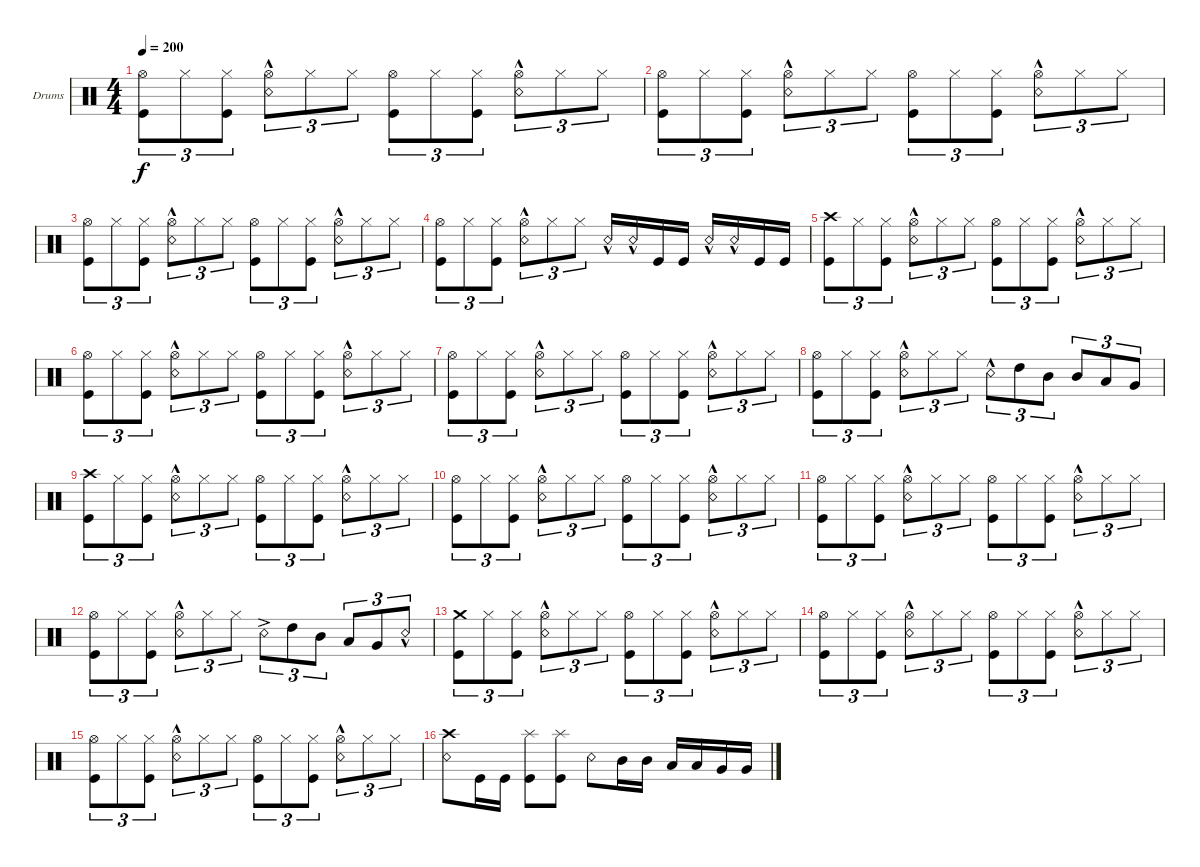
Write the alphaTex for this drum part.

\bracketExtendMode groupsimilarinstruments
\firstSystemTrackNameOrientation horizontal
\otherSystemsTrackNameOrientation horizontal
\track ("Drumkit" "Drums") {instrument percussion}
\staff {score}
\articulation defaults
\ts (4 4)
\tempo 200
\clef neutral
\ks c
("Kick (hit)" "Hi-Hat (open)").8{tu (3 2) dy f} "Hi-Hat (closed)".8{tu (3 2)} ("Kick (hit)" "Hi-Hat (closed)").8{tu (3 2)} ("Snare (rim shot)"{hac} "Hi-Hat (open)").8{tu (3 2)} "Hi-Hat (closed)".8{tu (3 2)} "Hi-Hat (closed)".8{tu (3 2)} ("Kick (hit)" "Hi-Hat (open)").8{tu (3 2)} "Hi-Hat (closed)".8{tu (3 2)} ("Kick (hit)" "Hi-Hat (closed)").8{tu (3 2)} ("Snare (rim shot)"{hac} "Hi-Hat (open)").8{tu (3 2)} "Hi-Hat (closed)".8{tu (3 2)} "Hi-Hat (closed)".8{tu (3 2)} |
("Kick (hit)" "Hi-Hat (open)").8{tu (3 2)} "Hi-Hat (closed)".8{tu (3 2)} ("Kick (hit)" "Hi-Hat (closed)").8{tu (3 2)} ("Snare (rim shot)"{hac} "Hi-Hat (open)").8{tu (3 2)} "Hi-Hat (closed)".8{tu (3 2)} "Hi-Hat (closed)".8{tu (3 2)} ("Kick (hit)" "Hi-Hat (open)").8{tu (3 2)} "Hi-Hat (closed)".8{tu (3 2)} ("Kick (hit)" "Hi-Hat (closed)").8{tu (3 2)} ("Snare (rim shot)"{hac} "Hi-Hat (open)").8{tu (3 2)} "Hi-Hat (closed)".8{tu (3 2)} "Hi-Hat (closed)".8{tu (3 2)} |
("Kick (hit)" "Hi-Hat (open)").8{tu (3 2)} "Hi-Hat (closed)".8{tu (3 2)} ("Kick (hit)" "Hi-Hat (closed)").8{tu (3 2)} ("Snare (rim shot)"{hac} "Hi-Hat (open)").8{tu (3 2)} "Hi-Hat (closed)".8{tu (3 2)} "Hi-Hat (closed)".8{tu (3 2)} ("Kick (hit)" "Hi-Hat (open)").8{tu (3 2)} "Hi-Hat (closed)".8{tu (3 2)} ("Kick (hit)" "Hi-Hat (closed)").8{tu (3 2)} ("Snare (rim shot)"{hac} "Hi-Hat (open)").8{tu (3 2)} "Hi-Hat (closed)".8{tu (3 2)} "Hi-Hat (closed)".8{tu (3 2)} |
("Kick (hit)" "Hi-Hat (open)").8{tu (3 2)} "Hi-Hat (closed)".8{tu (3 2)} ("Kick (hit)" "Hi-Hat (closed)").8{tu (3 2)} ("Snare (rim shot)"{hac} "Hi-Hat (open)").8{tu (3 2)} "Hi-Hat (closed)".8{tu (3 2)} "Hi-Hat (closed)".8{tu (3 2)} "Snare (rim shot)"{hac}.16 "Snare (rim shot)"{hac}.16 "Kick (hit)".16 "Kick (hit)".16 "Snare (rim shot)"{hac}.16 "Snare (rim shot)"{hac}.16 "Kick (hit)".16 "Kick (hit)".16 |
("Kick (hit)" "Crash high (hit)").8{tu (3 2)} "Hi-Hat (closed)".8{tu (3 2)} ("Kick (hit)" "Hi-Hat (closed)").8{tu (3 2)} ("Snare (rim shot)"{hac} "Hi-Hat (open)").8{tu (3 2)} "Hi-Hat (closed)".8{tu (3 2)} "Hi-Hat (closed)".8{tu (3 2)} ("Kick (hit)" "Hi-Hat (open)").8{tu (3 2)} "Hi-Hat (closed)".8{tu (3 2)} ("Kick (hit)" "Hi-Hat (closed)").8{tu (3 2)} ("Snare (rim shot)"{hac} "Hi-Hat (open)").8{tu (3 2)} "Hi-Hat (closed)".8{tu (3 2)} "Hi-Hat (closed)".8{tu (3 2)} |
("Kick (hit)" "Hi-Hat (open)").8{tu (3 2)} "Hi-Hat (closed)".8{tu (3 2)} ("Kick (hit)" "Hi-Hat (closed)").8{tu (3 2)} ("Snare (rim shot)"{hac} "Hi-Hat (open)").8{tu (3 2)} "Hi-Hat (closed)".8{tu (3 2)} "Hi-Hat (closed)".8{tu (3 2)} ("Kick (hit)" "Hi-Hat (open)").8{tu (3 2)} "Hi-Hat (closed)".8{tu (3 2)} ("Kick (hit)" "Hi-Hat (closed)").8{tu (3 2)} ("Snare (rim shot)"{hac} "Hi-Hat (open)").8{tu (3 2)} "Hi-Hat (closed)".8{tu (3 2)} "Hi-Hat (closed)".8{tu (3 2)} |
("Kick (hit)" "Hi-Hat (open)").8{tu (3 2)} "Hi-Hat (closed)".8{tu (3 2)} ("Kick (hit)" "Hi-Hat (closed)").8{tu (3 2)} ("Snare (rim shot)"{hac} "Hi-Hat (open)").8{tu (3 2)} "Hi-Hat (closed)".8{tu (3 2)} "Hi-Hat (closed)".8{tu (3 2)} ("Kick (hit)" "Hi-Hat (open)").8{tu (3 2)} "Hi-Hat (closed)".8{tu (3 2)} ("Kick (hit)" "Hi-Hat (closed)").8{tu (3 2)} ("Snare (rim shot)"{hac} "Hi-Hat (open)").8{tu (3 2)} "Hi-Hat (closed)".8{tu (3 2)} "Hi-Hat (closed)".8{tu (3 2)} |
("Kick (hit)" "Hi-Hat (open)").8{tu (3 2)} "Hi-Hat (closed)".8{tu (3 2)} ("Kick (hit)" "Hi-Hat (closed)").8{tu (3 2)} ("Snare (rim shot)"{hac} "Hi-Hat (open)").8{tu (3 2)} "Hi-Hat (closed)".8{tu (3 2)} "Hi-Hat (closed)".8{tu (3 2)} "Snare (rim shot)"{hac}.8{tu (3 2)} "High Tom (hit)".8{tu (3 2)} "Mid Tom (hit)".8{tu (3 2)} "Mid Tom (hit)".8{tu (3 2)} "Low Tom (hit)".8{tu (3 2)} "Very Low Tom (hit)".8{tu (3 2)} |
("Kick (hit)" "Crash high (hit)").8{tu (3 2)} "Hi-Hat (closed)".8{tu (3 2)} ("Kick (hit)" "Hi-Hat (closed)").8{tu (3 2)} ("Snare (rim shot)"{hac} "Hi-Hat (open)").8{tu (3 2)} "Hi-Hat (closed)".8{tu (3 2)} "Hi-Hat (closed)".8{tu (3 2)} ("Kick (hit)" "Hi-Hat (open)").8{tu (3 2)} "Hi-Hat (closed)".8{tu (3 2)} ("Kick (hit)" "Hi-Hat (closed)").8{tu (3 2)} ("Snare (rim shot)"{hac} "Hi-Hat (open)").8{tu (3 2)} "Hi-Hat (closed)".8{tu (3 2)} "Hi-Hat (closed)".8{tu (3 2)} |
("Kick (hit)" "Hi-Hat (open)").8{tu (3 2)} "Hi-Hat (closed)".8{tu (3 2)} ("Kick (hit)" "Hi-Hat (closed)").8{tu (3 2)} ("Snare (rim shot)"{hac} "Hi-Hat (open)").8{tu (3 2)} "Hi-Hat (closed)".8{tu (3 2)} "Hi-Hat (closed)".8{tu (3 2)} ("Kick (hit)" "Hi-Hat (open)").8{tu (3 2)} "Hi-Hat (closed)".8{tu (3 2)} ("Kick (hit)" "Hi-Hat (closed)").8{tu (3 2)} ("Snare (rim shot)"{hac} "Hi-Hat (open)").8{tu (3 2)} "Hi-Hat (closed)".8{tu (3 2)} "Hi-Hat (closed)".8{tu (3 2)} |
("Kick (hit)" "Hi-Hat (open)").8{tu (3 2)} "Hi-Hat (closed)".8{tu (3 2)} ("Kick (hit)" "Hi-Hat (closed)").8{tu (3 2)} ("Snare (rim shot)"{hac} "Hi-Hat (open)").8{tu (3 2)} "Hi-Hat (closed)".8{tu (3 2)} "Hi-Hat (closed)".8{tu (3 2)} ("Kick (hit)" "Hi-Hat (open)").8{tu (3 2)} "Hi-Hat (closed)".8{tu (3 2)} ("Kick (hit)" "Hi-Hat (closed)").8{tu (3 2)} ("Snare (rim shot)"{hac} "Hi-Hat (open)").8{tu (3 2)} "Hi-Hat (closed)".8{tu (3 2)} "Hi-Hat (closed)".8{tu (3 2)} |
("Kick (hit)" "Hi-Hat (open)").8{tu (3 2)} "Hi-Hat (closed)".8{tu (3 2)} ("Kick (hit)" "Hi-Hat (closed)").8{tu (3 2)} ("Snare (rim shot)"{hac} "Hi-Hat (open)").8{tu (3 2)} "Hi-Hat (closed)".8{tu (3 2)} "Hi-Hat (closed)".8{tu (3 2)} "Snare (rim shot)"{ac}.8{tu (3 2)} "High Tom (hit)".8{tu (3 2)} "Mid Tom (hit)".8{tu (3 2)} "Low Tom (hit)".8{tu (3 2)} "Very Low Tom (hit)".8{tu (3 2)} "Snare (rim shot)"{hac}.8{tu (3 2)} |
("Kick (hit)" "Crash medium (hit)").8{tu (3 2)} "Hi-Hat (closed)".8{tu (3 2)} ("Kick (hit)" "Hi-Hat (closed)").8{tu (3 2)} ("Snare (rim shot)"{hac} "Hi-Hat (open)").8{tu (3 2)} "Hi-Hat (closed)".8{tu (3 2)} "Hi-Hat (closed)".8{tu (3 2)} ("Kick (hit)" "Hi-Hat (open)").8{tu (3 2)} "Hi-Hat (closed)".8{tu (3 2)} ("Kick (hit)" "Hi-Hat (closed)").8{tu (3 2)} ("Snare (rim shot)"{hac} "Hi-Hat (open)").8{tu (3 2)} "Hi-Hat (closed)".8{tu (3 2)} "Hi-Hat (closed)".8{tu (3 2)} |
("Kick (hit)" "Hi-Hat (open)").8{tu (3 2)} "Hi-Hat (closed)".8{tu (3 2)} ("Kick (hit)" "Hi-Hat (closed)").8{tu (3 2)} ("Snare (rim shot)"{hac} "Hi-Hat (open)").8{tu (3 2)} "Hi-Hat (closed)".8{tu (3 2)} "Hi-Hat (closed)".8{tu (3 2)} ("Kick (hit)" "Hi-Hat (open)").8{tu (3 2)} "Hi-Hat (closed)".8{tu (3 2)} ("Kick (hit)" "Hi-Hat (closed)").8{tu (3 2)} ("Snare (rim shot)"{hac} "Hi-Hat (open)").8{tu (3 2)} "Hi-Hat (closed)".8{tu (3 2)} "Hi-Hat (closed)".8{tu (3 2)} |
("Kick (hit)" "Hi-Hat (open)").8{tu (3 2)} "Hi-Hat (closed)".8{tu (3 2)} ("Kick (hit)" "Hi-Hat (closed)").8{tu (3 2)} ("Snare (rim shot)"{hac} "Hi-Hat (open)").8{tu (3 2)} "Hi-Hat (closed)".8{tu (3 2)} "Hi-Hat (closed)".8{tu (3 2)} ("Kick (hit)" "Hi-Hat (open)").8{tu (3 2)} "Hi-Hat (closed)".8{tu (3 2)} ("Kick (hit)" "Hi-Hat (closed)").8{tu (3 2)} ("Snare (rim shot)"{hac} "Hi-Hat (open)").8{tu (3 2)} "Hi-Hat (closed)".8{tu (3 2)} "Hi-Hat (closed)".8{tu (3 2)} |
("Snare (rim shot)" "Crash high (hit)").8 "Kick (hit)".16 "Kick (hit)".16 ("Kick (hit)" "Splash (hit)").8 ("Kick (hit)" "Splash (hit)").8 "Snare (rim shot)".8 "Mid Tom (hit)".16 "Mid Tom (hit)".16 "Low Tom (hit)".16 "Low Tom (hit)".16 "Very Low Tom (hit)".16 "Very Low Tom (hit)".16
